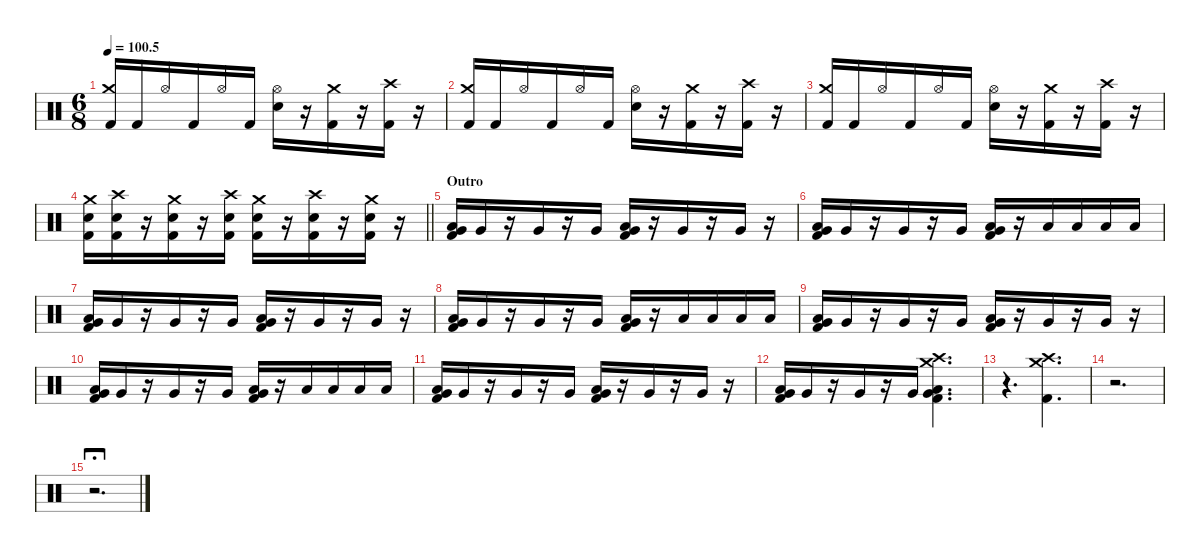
\defaultSystemsLayout 4
\hideDynamics
\bracketExtendMode nobrackets
\singleTrackTrackNamePolicy hidden
\multiTrackTrackNamePolicy hidden
\firstSystemTrackNameMode fullname
\firstSystemTrackNameOrientation horizontal
\otherSystemsTrackNameOrientation horizontal
\track ("Drums" "drm.") {instrument percussion}
\staff {score}
\articulation defaults
\ts (6 8)
\tempo
100.5
\accidentals auto
\clef neutral
\ottava regular
\simile none
\ks c
("Crash medium (hit)" "Kick (hit) 2").16{dy f beam Up} "Kick (hit) 2".16{beam Up} "Hi-Hat (open)".16{beam Up} "Kick (hit) 2".16{beam Up} "Hi-Hat (open)".16{beam Up} "Kick (hit) 2".16{beam Up} ("Hi-Hat (open)" "Snare (hit) 2").16{beam Down} r.16{beam Down} ("Crash medium (hit)" "Kick (hit) 2").16{beam Down} r.16{beam Down} ("Crash high (hit)" "Kick (hit) 2").16{beam Down} r.16{beam Down} |
("Crash medium (hit)" "Kick (hit) 2").16{beam Up} "Kick (hit) 2".16{beam Up} "Hi-Hat (open)".16{beam Up} "Kick (hit) 2".16{beam Up} "Hi-Hat (open)".16{beam Up} "Kick (hit) 2".16{beam Up} ("Hi-Hat (open)" "Snare (hit) 2").16{beam Down} r.16{beam Down} ("Crash medium (hit)" "Kick (hit) 2").16{beam Down} r.16{beam Down} ("Crash high (hit)" "Kick (hit) 2").16{beam Down} r.16{beam Down} |
("Crash medium (hit)" "Kick (hit) 2").16{beam Up} "Kick (hit) 2".16{beam Up} "Hi-Hat (open)".16{beam Up} "Kick (hit) 2".16{beam Up} "Hi-Hat (open)".16{beam Up} "Kick (hit) 2".16{beam Up} ("Hi-Hat (open)" "Snare (hit) 2").16{beam Down} r.16{beam Down} ("Crash medium (hit)" "Kick (hit) 2").16{beam Down} r.16{beam Down} ("Crash high (hit)" "Kick (hit) 2").16{beam Down} r.16{beam Down} |
\barLineRight lightlight
("Crash medium (hit)" "Snare (hit) 2" "Kick (hit) 2").16{beam Down} ("Crash high (hit)" "Snare (hit) 2" "Kick (hit) 2").16{beam Down} r.16{beam Down} ("Crash medium (hit)" "Snare (hit) 2" "Kick (hit) 2").16{beam Down} r.16{beam Down} ("Crash high (hit)" "Snare (hit) 2" "Kick (hit) 2").16{beam Down} ("Crash medium (hit)" "Snare (hit) 2" "Kick (hit) 2").16{beam Down} r.16{beam Down} ("Crash high (hit)" "Snare (hit) 2" "Kick (hit) 2").16{beam Down} r.16{beam Down} ("Crash medium (hit)" "Snare (hit) 2" "Kick (hit) 2").16{beam Down} r.16{beam Down} |
\section ("" "Outro")
("Low Tom (hit)" "Very Low Tom (hit)" "Kick (hit) 2").16{beam Up} "Very Low Tom (hit)".16{beam Up} r.16{beam Up} "Very Low Tom (hit)".16{beam Up} r.16{beam Up} "Very Low Tom (hit)".16{beam Up} ("Low Tom (hit)" "Very Low Tom (hit)" "Kick (hit) 2").16{beam Up} r.16{beam Up} "Very Low Tom (hit)".16{beam Up} r.16{beam Up} "Very Low Tom (hit)".16{beam Up} r.16{beam Up} |
("Low Tom (hit)" "Very Low Tom (hit)" "Kick (hit) 2").16{beam Up} "Very Low Tom (hit)".16{beam Up} r.16{beam Up} "Very Low Tom (hit)".16{beam Up} r.16{beam Up} "Very Low Tom (hit)".16{beam Up} ("Low Tom (hit)" "Very Low Tom (hit)" "Kick (hit) 2").16{beam Up} r.16{beam Up} "Low Floor Tom (hit)".16{dy ppp beam Up} "Low Floor Tom (hit)".16{beam Up} "Low Floor Tom (hit)".16{beam Up} "Low Floor Tom (hit)".16{beam Up} |
("Low Tom (hit)" "Very Low Tom (hit)" "Kick (hit) 2").16{dy f beam Up} "Very Low Tom (hit)".16{beam Up} r.16{beam Up} "Very Low Tom (hit)".16{beam Up} r.16{beam Up} "Very Low Tom (hit)".16{beam Up} ("Low Tom (hit)" "Very Low Tom (hit)" "Kick (hit) 2").16{beam Up} r.16{beam Up} "Very Low Tom (hit)".16{beam Up} r.16{beam Up} "Very Low Tom (hit)".16{beam Up} r.16{beam Up} |
("Low Tom (hit)" "Very Low Tom (hit)" "Kick (hit) 2").16{beam Up} "Very Low Tom (hit)".16{beam Up} r.16{beam Up} "Very Low Tom (hit)".16{beam Up} r.16{beam Up} "Very Low Tom (hit)".16{beam Up} ("Low Tom (hit)" "Very Low Tom (hit)" "Kick (hit) 2").16{beam Up} r.16{beam Up} "Low Floor Tom (hit)".16{dy pp beam Up} "Low Floor Tom (hit)".16{beam Up} "Low Floor Tom (hit)".16{beam Up} "Low Floor Tom (hit)".16{beam Up} |
("Low Tom (hit)" "Very Low Tom (hit)" "Kick (hit) 2").16{dy f beam Up} "Very Low Tom (hit)".16{beam Up} r.16{beam Up} "Very Low Tom (hit)".16{beam Up} r.16{beam Up} "Very Low Tom (hit)".16{beam Up} ("Low Tom (hit)" "Very Low Tom (hit)" "Kick (hit) 2").16{beam Up} r.16{beam Up} "Very Low Tom (hit)".16{beam Up} r.16{beam Up} "Very Low Tom (hit)".16{beam Up} r.16{beam Up} |
("Low Tom (hit)" "Very Low Tom (hit)" "Kick (hit) 2").16{beam Up} "Very Low Tom (hit)".16{beam Up} r.16{beam Up} "Very Low Tom (hit)".16{beam Up} r.16{beam Up} "Very Low Tom (hit)".16{beam Up} ("Low Tom (hit)" "Very Low Tom (hit)" "Kick (hit) 2").16{beam Up} r.16{beam Up} "Low Floor Tom (hit)".16{dy pp beam Up} "Low Floor Tom (hit)".16{beam Up} "Low Floor Tom (hit)".16{beam Up} "Low Floor Tom (hit)".16{beam Up} |
("Low Tom (hit)" "Very Low Tom (hit)" "Kick (hit) 2").16{dy f beam Up} "Very Low Tom (hit)".16{beam Up} r.16{beam Up} "Very Low Tom (hit)".16{beam Up} r.16{beam Up} "Very Low Tom (hit)".16{beam Up} ("Low Tom (hit)" "Very Low Tom (hit)" "Kick (hit) 2").16{beam Up} r.16{beam Up} "Very Low Tom (hit)".16{beam Up} r.16{beam Up} "Very Low Tom (hit)".16{beam Up} r.16{beam Up} |
("Low Tom (hit)" "Very Low Tom (hit)" "Kick (hit) 2").16{beam Up} "Very Low Tom (hit)".16{beam Up} r.16{beam Up} "Very Low Tom (hit)".16{beam Up} r.16{beam Up} "Very Low Tom (hit)".16{beam Up} ("Low Tom (hit)" "Very Low Tom (hit)" "Kick (hit) 2" "Crash high (hit)" "Crash medium (hit)").4{d beam Down} |
r.4{d beam Down} ("Crash medium (hit)" "Crash high (hit)" "Kick (hit) 2").4{d dy mf beam Down} |
r.2{d beam Down} |
r.2{d fermata (long 1) beam Down}
